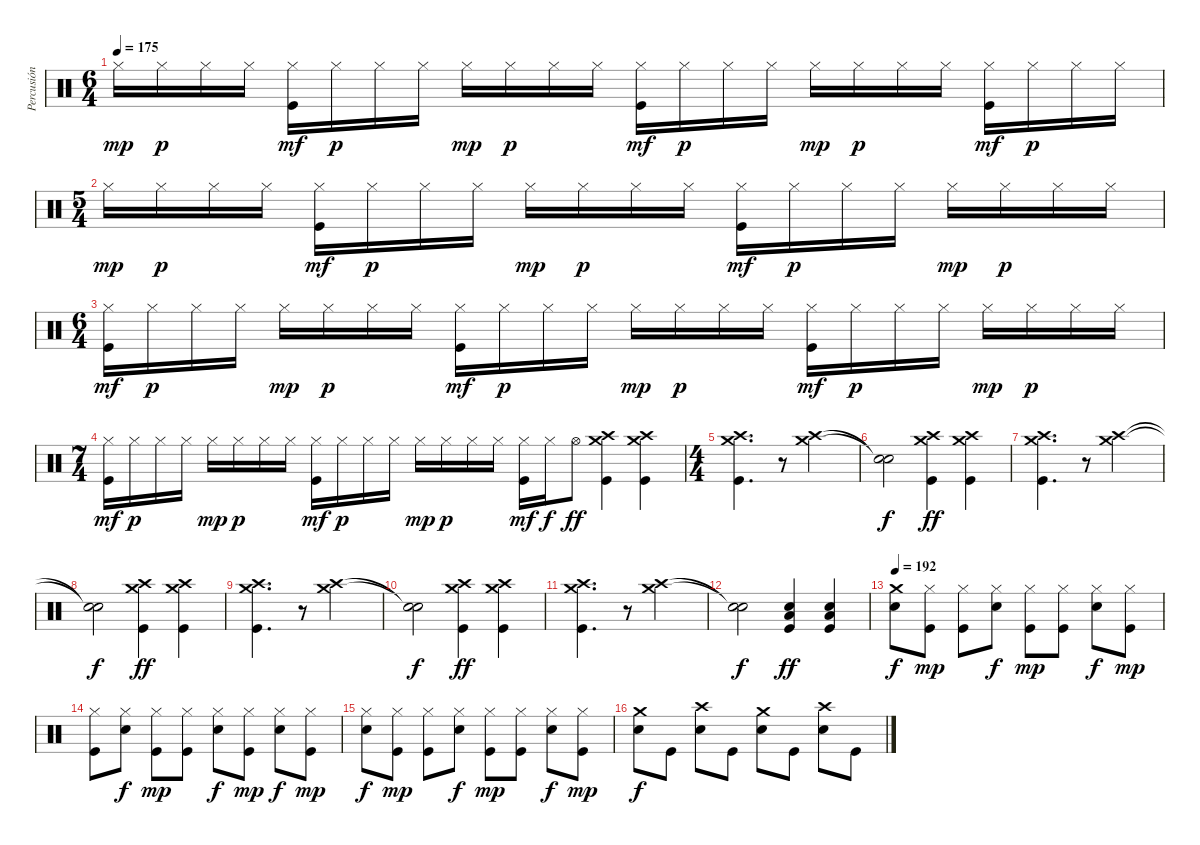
\track ("Percusión" "Percusión") {instrument percussion}
\staff {score}
\articulation defaults
\ts (6 4)
\tempo 175
\clef neutral
\ks c "Hi-Hat (closed)".16{dy mp} "Hi-Hat (closed)".16{dy p} "Hi-Hat (closed)".16 "Hi-Hat (closed)".16
("Hi-Hat (closed)" "Kick (hit)").16{dy mf} "Hi-Hat (closed)".16{dy p} "Hi-Hat (closed)".16 "Hi-Hat (closed)".16 "Hi-Hat (closed)".16{dy mp} "Hi-Hat (closed)".16{dy p} "Hi-Hat (closed)".16 "Hi-Hat (closed)".16 ("Hi-Hat (closed)" "Kick (hit)").16{dy mf} "Hi-Hat (closed)".16{dy p} "Hi-Hat (closed)".16 "Hi-Hat (closed)".16 "Hi-Hat (closed)".16{dy mp} "Hi-Hat (closed)".16{dy p} "Hi-Hat (closed)".16 "Hi-Hat (closed)".16 ("Hi-Hat (closed)" "Kick (hit)").16{dy mf} "Hi-Hat (closed)".16{dy p} "Hi-Hat (closed)".16 "Hi-Hat (closed)".16 |
\ts (5 4)
"Hi-Hat (closed)".16{dy mp} "Hi-Hat (closed)".16{dy p} "Hi-Hat (closed)".16 "Hi-Hat (closed)".16 ("Hi-Hat (closed)" "Kick (hit)").16{dy mf} "Hi-Hat (closed)".16{dy p} "Hi-Hat (closed)".16 "Hi-Hat (closed)".16 "Hi-Hat (closed)".16{dy mp} "Hi-Hat (closed)".16{dy p} "Hi-Hat (closed)".16 "Hi-Hat (closed)".16 ("Hi-Hat (closed)" "Kick (hit)").16{dy mf} "Hi-Hat (closed)".16{dy p} "Hi-Hat (closed)".16 "Hi-Hat (closed)".16 "Hi-Hat (closed)".16{dy mp} "Hi-Hat (closed)".16{dy p} "Hi-Hat (closed)".16 "Hi-Hat (closed)".16 |
\ts (6 4)
("Hi-Hat (closed)" "Kick (hit)").16{dy mf} "Hi-Hat (closed)".16{dy p} "Hi-Hat (closed)".16 "Hi-Hat (closed)".16 "Hi-Hat (closed)".16{dy mp} "Hi-Hat (closed)".16{dy p} "Hi-Hat (closed)".16 "Hi-Hat (closed)".16 ("Hi-Hat (closed)" "Kick (hit)").16{dy mf} "Hi-Hat (closed)".16{dy p} "Hi-Hat (closed)".16 "Hi-Hat (closed)".16 "Hi-Hat (closed)".16{dy mp} "Hi-Hat (closed)".16{dy p} "Hi-Hat (closed)".16 "Hi-Hat (closed)".16 ("Hi-Hat (closed)" "Kick (hit)").16{dy mf} "Hi-Hat (closed)".16{dy p} "Hi-Hat (closed)".16 "Hi-Hat (closed)".16 "Hi-Hat (closed)".16{dy mp} "Hi-Hat (closed)".16{dy p} "Hi-Hat (closed)".16 "Hi-Hat (closed)".16 |
\ts (7 4)
("Hi-Hat (closed)" "Kick (hit)").16{dy mf} "Hi-Hat (closed)".16{dy p} "Hi-Hat (closed)".16 "Hi-Hat (closed)".16 "Hi-Hat (closed)".16{dy mp} "Hi-Hat (closed)".16{dy p} "Hi-Hat (closed)".16 "Hi-Hat (closed)".16 ("Hi-Hat (closed)" "Kick (hit)").16{dy mf} "Hi-Hat (closed)".16{dy p} "Hi-Hat (closed)".16 "Hi-Hat (closed)".16 "Hi-Hat (closed)".16{dy mp} "Hi-Hat (closed)".16{dy p} "Hi-Hat (closed)".16 "Hi-Hat (closed)".16 ("Hi-Hat (closed)" "Kick (hit)").16{dy mf} "Hi-Hat (closed)".16{dy f} "Hi-Hat (open)".8{dy ff} ("Crash medium (hit)" "Crash high (hit)" "Kick (hit)").4 ("Crash medium (hit)" "Crash high (hit)" "Kick (hit)").4 |
\ts (4 4)
("Crash high (hit)" "Crash medium (hit)" "Kick (hit)").4{d} r.8{volume 0} ("Crash high (hit)" "Crash medium (hit)").2{volume 14} |
("Snare (hit)"{t} "Snare (hit)"{t}).2{dy f} ("Crash medium (hit)" "Crash high (hit)" "Kick (hit)").4{dy ff} ("Crash medium (hit)" "Crash high (hit)" "Kick (hit)").4 |
("Crash high (hit)" "Crash medium (hit)" "Kick (hit)").4{d} r.8{volume 0} ("Crash high (hit)" "Crash medium (hit)").2{volume 14} |
("Snare (hit)"{t} "Snare (hit)"{t}).2{dy f} ("Crash medium (hit)" "Crash high (hit)" "Kick (hit)").4{dy ff} ("Crash medium (hit)" "Crash high (hit)" "Kick (hit)").4 |
("Crash high (hit)" "Crash medium (hit)" "Kick (hit)").4{d} r.8{volume 0} ("Crash high (hit)" "Crash medium (hit)").2{volume 14} |
("Snare (hit)"{t} "Snare (hit)"{t}).2{dy f} ("Crash medium (hit)" "Crash high (hit)" "Kick (hit)").4{dy ff} ("Crash medium (hit)" "Crash high (hit)" "Kick (hit)").4 |
("Crash high (hit)" "Crash medium (hit)" "Kick (hit)").4{d} r.8{volume 0} ("Crash high (hit)" "Crash medium (hit)").2{volume 14} |
("Snare (hit)"{t} "Snare (hit)"{t}).2{dy f} ("Electric Snare (hit)" "Low Floor Tom (hit)" "Kick (hit)").4{dy ff} ("Electric Snare (hit)" "Low Floor Tom (hit)" "Kick (hit)").4 |
\tempo 192
("Crash medium (hit)" "Electric Snare (hit)").8{dy f} ("Hi-Hat (closed)" "Kick (hit)").8{dy mp} ("Hi-Hat (closed)" "Kick (hit)").8 ("Hi-Hat (closed)" "Electric Snare (hit)").8{dy f} ("Hi-Hat (closed)" "Kick (hit)").8{dy mp} ("Hi-Hat (closed)" "Kick (hit)").8 ("Hi-Hat (closed)" "Electric Snare (hit)").8{dy f} ("Hi-Hat (closed)" "Kick (hit)").8{dy mp} |
("Hi-Hat (closed)" "Kick (hit)").8 ("Hi-Hat (closed)" "Electric Snare (hit)").8{dy f} ("Hi-Hat (closed)" "Kick (hit)").8{dy mp} ("Hi-Hat (closed)" "Kick (hit)").8 ("Hi-Hat (closed)" "Electric Snare (hit)").8{dy f} ("Hi-Hat (closed)" "Kick (hit)").8{dy mp} ("Hi-Hat (closed)" "Electric Snare (hit)").8{dy f} ("Hi-Hat (closed)" "Kick (hit)").8{dy mp} |
("Hi-Hat (closed)" "Electric Snare (hit)").8{dy f} ("Hi-Hat (closed)" "Kick (hit)").8{dy mp} ("Hi-Hat (closed)" "Kick (hit)").8 ("Hi-Hat (closed)" "Electric Snare (hit)").8{dy f} ("Hi-Hat (closed)" "Kick (hit)").8{dy mp} ("Hi-Hat (closed)" "Kick (hit)").8 ("Hi-Hat (closed)" "Electric Snare (hit)").8{dy f} ("Hi-Hat (closed)" "Kick (hit)").8{dy mp} |
("Crash medium (hit)" "Electric Snare (hit)").8{dy f} "Kick (hit)".8 ("Crash high (hit)" "Electric Snare (hit)").8 "Kick (hit)".8 ("Crash medium (hit)" "Electric Snare (hit)").8 "Kick (hit)".8 ("Crash high (hit)" "Electric Snare (hit)").8 "Kick (hit)".8
